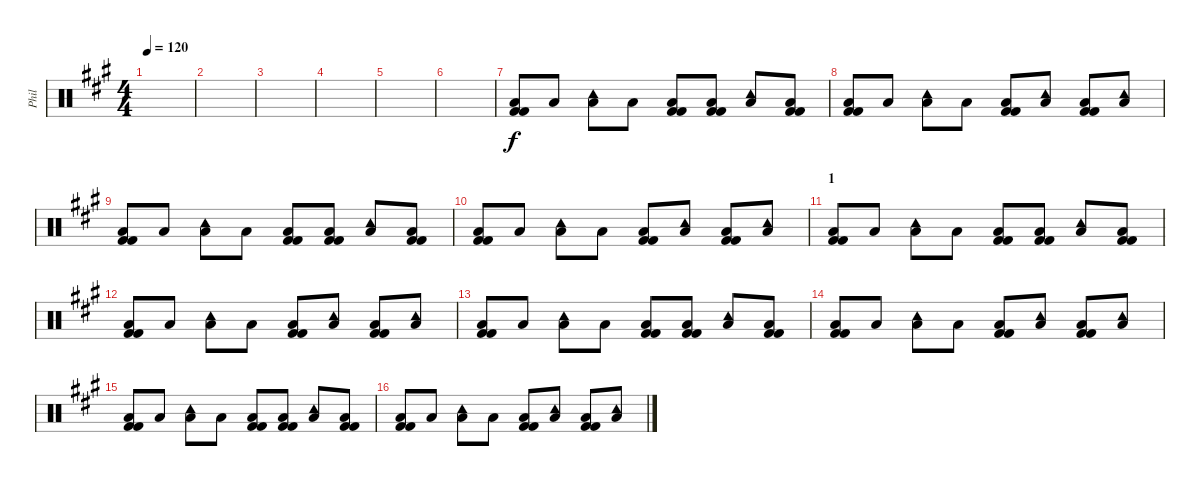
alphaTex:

\track ("Phil" "Phil") {instrument percussion}
\staff {score}
\articulation defaults
\ts (4 4)
\tempo 120
\clef neutral
\ks a
|
|
|
|
|
|
("Kick (hit) 2" "Low Floor Tom (hit)" "Kick (hit) 2").8 "Low Floor Tom (hit)".8 ("Low Floor Tom (hit)" "Tambourine (hit)").8 "Low Floor Tom (hit)".8 ("Kick (hit) 2" "Low Floor Tom (hit)" "Kick (hit) 2").8 ("Kick (hit) 2" "Low Floor Tom (hit)" "Kick (hit) 2").8 ("Low Floor Tom (hit)" "Tambourine (hit)").8 ("Kick (hit) 2" "Low Floor Tom (hit)" "Kick (hit) 2").8 |
("Kick (hit) 2" "Low Floor Tom (hit)" "Kick (hit) 2").8 "Low Floor Tom (hit)".8 ("Low Floor Tom (hit)" "Tambourine (hit)").8 "Low Floor Tom (hit)".8 ("Kick (hit) 2" "Low Floor Tom (hit)" "Kick (hit) 2").8 ("Low Floor Tom (hit)" "Tambourine (hit)").8 ("Kick (hit) 2" "Low Floor Tom (hit)" "Kick (hit) 2").8 ("Low Floor Tom (hit)" "Tambourine (hit)").8 |
("Kick (hit) 2" "Low Floor Tom (hit)" "Kick (hit) 2").8 "Low Floor Tom (hit)".8 ("Low Floor Tom (hit)" "Tambourine (hit)").8 "Low Floor Tom (hit)".8 ("Kick (hit) 2" "Low Floor Tom (hit)" "Kick (hit) 2").8 ("Kick (hit) 2" "Low Floor Tom (hit)" "Kick (hit) 2").8 ("Low Floor Tom (hit)" "Tambourine (hit)").8 ("Kick (hit) 2" "Low Floor Tom (hit)" "Kick (hit) 2").8 |
("Kick (hit) 2" "Low Floor Tom (hit)" "Kick (hit) 2").8 "Low Floor Tom (hit)".8 ("Low Floor Tom (hit)" "Tambourine (hit)").8 "Low Floor Tom (hit)".8 ("Kick (hit) 2" "Low Floor Tom (hit)" "Kick (hit) 2").8 ("Low Floor Tom (hit)" "Tambourine (hit)").8 ("Kick (hit) 2" "Low Floor Tom (hit)" "Kick (hit) 2").8 ("Low Floor Tom (hit)" "Tambourine (hit)").8 |
\section ("" "1")
("Kick (hit) 2" "Low Floor Tom (hit)" "Kick (hit) 2").8 "Low Floor Tom (hit)".8 ("Low Floor Tom (hit)" "Tambourine (hit)").8 "Low Floor Tom (hit)".8 ("Kick (hit) 2" "Low Floor Tom (hit)" "Kick (hit) 2").8 ("Kick (hit) 2" "Low Floor Tom (hit)" "Kick (hit) 2").8 ("Low Floor Tom (hit)" "Tambourine (hit)").8 ("Kick (hit) 2" "Low Floor Tom (hit)" "Kick (hit) 2").8 |
("Kick (hit) 2" "Low Floor Tom (hit)" "Kick (hit) 2").8 "Low Floor Tom (hit)".8 ("Low Floor Tom (hit)" "Tambourine (hit)").8 "Low Floor Tom (hit)".8 ("Kick (hit) 2" "Low Floor Tom (hit)" "Kick (hit) 2").8 ("Low Floor Tom (hit)" "Tambourine (hit)").8 ("Kick (hit) 2" "Low Floor Tom (hit)" "Kick (hit) 2").8 ("Low Floor Tom (hit)" "Tambourine (hit)").8 |
("Kick (hit) 2" "Low Floor Tom (hit)" "Kick (hit) 2").8 "Low Floor Tom (hit)".8 ("Low Floor Tom (hit)" "Tambourine (hit)").8 "Low Floor Tom (hit)".8 ("Kick (hit) 2" "Low Floor Tom (hit)" "Kick (hit) 2").8 ("Kick (hit) 2" "Low Floor Tom (hit)" "Kick (hit) 2").8 ("Low Floor Tom (hit)" "Tambourine (hit)").8 ("Kick (hit) 2" "Low Floor Tom (hit)" "Kick (hit) 2").8 |
("Kick (hit) 2" "Low Floor Tom (hit)" "Kick (hit) 2").8 "Low Floor Tom (hit)".8 ("Low Floor Tom (hit)" "Tambourine (hit)").8 "Low Floor Tom (hit)".8 ("Kick (hit) 2" "Low Floor Tom (hit)" "Kick (hit) 2").8 ("Low Floor Tom (hit)" "Tambourine (hit)").8 ("Kick (hit) 2" "Low Floor Tom (hit)" "Kick (hit) 2").8 ("Low Floor Tom (hit)" "Tambourine (hit)").8 |
("Kick (hit) 2" "Low Floor Tom (hit)" "Kick (hit) 2").8 "Low Floor Tom (hit)".8 ("Low Floor Tom (hit)" "Tambourine (hit)").8 "Low Floor Tom (hit)".8 ("Kick (hit) 2" "Low Floor Tom (hit)" "Kick (hit) 2").8 ("Kick (hit) 2" "Low Floor Tom (hit)" "Kick (hit) 2").8 ("Low Floor Tom (hit)" "Tambourine (hit)").8 ("Kick (hit) 2" "Low Floor Tom (hit)" "Kick (hit) 2").8 |
("Kick (hit) 2" "Low Floor Tom (hit)" "Kick (hit) 2").8 "Low Floor Tom (hit)".8 ("Low Floor Tom (hit)" "Tambourine (hit)").8 "Low Floor Tom (hit)".8 ("Kick (hit) 2" "Low Floor Tom (hit)" "Kick (hit) 2").8 ("Low Floor Tom (hit)" "Tambourine (hit)").8 ("Kick (hit) 2" "Low Floor Tom (hit)" "Kick (hit) 2").8 ("Low Floor Tom (hit)" "Tambourine (hit)").8
